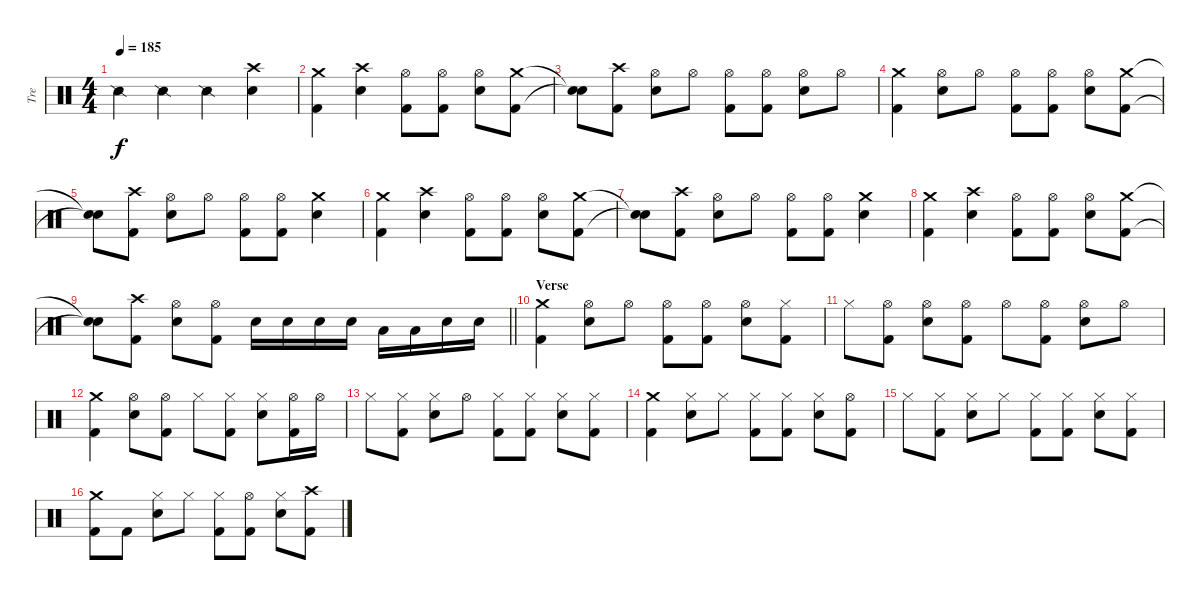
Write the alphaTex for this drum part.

\track ("Tre" "Tre") {instrument percussion}
\staff {score}
\articulation defaults
\ts (4 4)
\tempo 185
\clef neutral
\ks c "Snare (side stick) 2".4{dy f} "Snare (side stick) 2".4 "Snare (side stick) 2".4
("Crash high (hit)" "Electric Snare (hit)").4 |
("Crash medium (hit)" "Kick (hit) 2").4 ("Crash high (hit)" "Electric Snare (hit)").4 ("Hi-Hat (open)" "Kick (hit) 2").8 ("Hi-Hat (open)" "Kick (hit) 2").8 ("Hi-Hat (open)" "Electric Snare (hit)").8 ("Crash medium (hit)" "Kick (hit) 2").8 |
("Snare (hit)"{t} "Snare (hit)"{t}).8 ("Crash high (hit)" "Kick (hit) 2").8 ("Hi-Hat (open)" "Electric Snare (hit)").8 "Hi-Hat (open)".8 ("Hi-Hat (open)" "Kick (hit) 2").8 ("Hi-Hat (open)" "Kick (hit) 2").8 ("Hi-Hat (open)" "Electric Snare (hit)").8 "Hi-Hat (open)".8 |
("Crash medium (hit)" "Kick (hit) 2").4 ("Hi-Hat (open)" "Electric Snare (hit)").8 "Hi-Hat (open)".8 ("Hi-Hat (open)" "Kick (hit) 2").8 ("Hi-Hat (open)" "Kick (hit) 2").8 ("Hi-Hat (open)" "Electric Snare (hit)").8 ("Crash medium (hit)" "Kick (hit) 2").8 |
("Snare (hit)"{t} "Snare (hit)"{t}).8 ("Crash high (hit)" "Kick (hit) 2").8 ("Hi-Hat (open)" "Electric Snare (hit)").8 "Hi-Hat (open)".8 ("Hi-Hat (open)" "Kick (hit) 2").8 ("Hi-Hat (open)" "Kick (hit) 2").8 ("Crash medium (hit)" "Electric Snare (hit)").4 |
("Crash medium (hit)" "Kick (hit) 2").4 ("Crash high (hit)" "Electric Snare (hit)").4 ("Hi-Hat (open)" "Kick (hit) 2").8 ("Hi-Hat (open)" "Kick (hit) 2").8 ("Hi-Hat (open)" "Electric Snare (hit)").8 ("Crash medium (hit)" "Kick (hit) 2").8 |
("Snare (hit)"{t} "Snare (hit)"{t}).8 ("Crash high (hit)" "Kick (hit) 2").8 ("Hi-Hat (open)" "Electric Snare (hit)").8 "Hi-Hat (open)".8 ("Hi-Hat (open)" "Kick (hit) 2").8 ("Hi-Hat (open)" "Kick (hit) 2").8 ("Crash medium (hit)" "Electric Snare (hit)").4 |
("Crash medium (hit)" "Kick (hit) 2").4 ("Crash high (hit)" "Electric Snare (hit)").4 ("Hi-Hat (open)" "Kick (hit) 2").8 ("Hi-Hat (open)" "Kick (hit) 2").8 ("Hi-Hat (open)" "Electric Snare (hit)").8 ("Crash medium (hit)" "Kick (hit) 2").8 |
\barLineRight lightlight
("Snare (hit)"{t} "Snare (hit)"{t}).8 ("Crash high (hit)" "Kick (hit) 2").8 ("Hi-Hat (open)" "Electric Snare (hit)").8 ("Hi-Hat (open)" "Kick (hit) 2").8 "Electric Snare (hit)".16 "Electric Snare (hit)".16 "Electric Snare (hit)".16 "Electric Snare (hit)".16 "Low Tom (hit)".16 "Low Tom (hit)".16 "Electric Snare (hit)".16 "Electric Snare (hit)".16 |
\section ("" "Verse")
("Crash medium (hit)" "Kick (hit) 2").4 ("Hi-Hat (open)" "Electric Snare (hit)").8 "Hi-Hat (open)".8 ("Hi-Hat (open)" "Kick (hit) 2").8 ("Hi-Hat (open)" "Kick (hit) 2").8 ("Hi-Hat (open)" "Electric Snare (hit)").8 ("Hi-Hat (closed)" "Kick (hit) 2").8 |
"Hi-Hat (closed)".8 ("Hi-Hat (open)" "Kick (hit) 2").8 ("Hi-Hat (open)" "Electric Snare (hit)").8 ("Hi-Hat (open)" "Kick (hit) 2").8 "Hi-Hat (open)".8 ("Hi-Hat (open)" "Kick (hit) 2").8 ("Hi-Hat (open)" "Electric Snare (hit)").8 "Hi-Hat (open)".8 |
("Crash medium (hit)" "Kick (hit) 2").4 ("Hi-Hat (open)" "Electric Snare (hit)").8 ("Hi-Hat (open)" "Kick (hit) 2").8 "Hi-Hat (closed)".8 ("Hi-Hat (closed)" "Kick (hit) 2").8 ("Hi-Hat (closed)" "Electric Snare (hit)").8 ("Hi-Hat (open)" "Kick (hit) 2").16 "Hi-Hat (open)".16 |
"Hi-Hat (closed)".8 ("Hi-Hat (closed)" "Kick (hit) 2").8 ("Hi-Hat (closed)" "Electric Snare (hit)").8 "Hi-Hat (open)".8 ("Hi-Hat (closed)" "Kick (hit) 2").8 ("Hi-Hat (closed)" "Kick (hit) 2").8 ("Hi-Hat (closed)" "Electric Snare (hit)").8 ("Hi-Hat (closed)" "Kick (hit) 2").8 |
("Crash medium (hit)" "Kick (hit) 2").4 ("Hi-Hat (closed)" "Electric Snare (hit)").8 "Hi-Hat (closed)".8 ("Hi-Hat (closed)" "Kick (hit) 2").8 ("Hi-Hat (closed)" "Kick (hit) 2").8 ("Hi-Hat (closed)" "Electric Snare (hit)").8 ("Hi-Hat (open)" "Kick (hit) 2").8 |
"Hi-Hat (closed)".8 ("Hi-Hat (closed)" "Kick (hit) 2").8 ("Hi-Hat (closed)" "Electric Snare (hit)").8 "Hi-Hat (closed)".8 ("Hi-Hat (closed)" "Kick (hit) 2").8 ("Hi-Hat (closed)" "Kick (hit) 2").8 ("Hi-Hat (closed)" "Electric Snare (hit)").8 ("Hi-Hat (closed)" "Kick (hit) 2").8 |
("Crash medium (hit)" "Kick (hit) 2").8 "Kick (hit) 2".8 ("Hi-Hat (closed)" "Electric Snare (hit)").8 "Hi-Hat (closed)".8 ("Hi-Hat (closed)" "Kick (hit) 2").8 ("Hi-Hat (open)" "Kick (hit) 2").8 ("Hi-Hat (closed)" "Electric Snare (hit)").8 ("Crash high (hit)" "Kick (hit) 2").8
